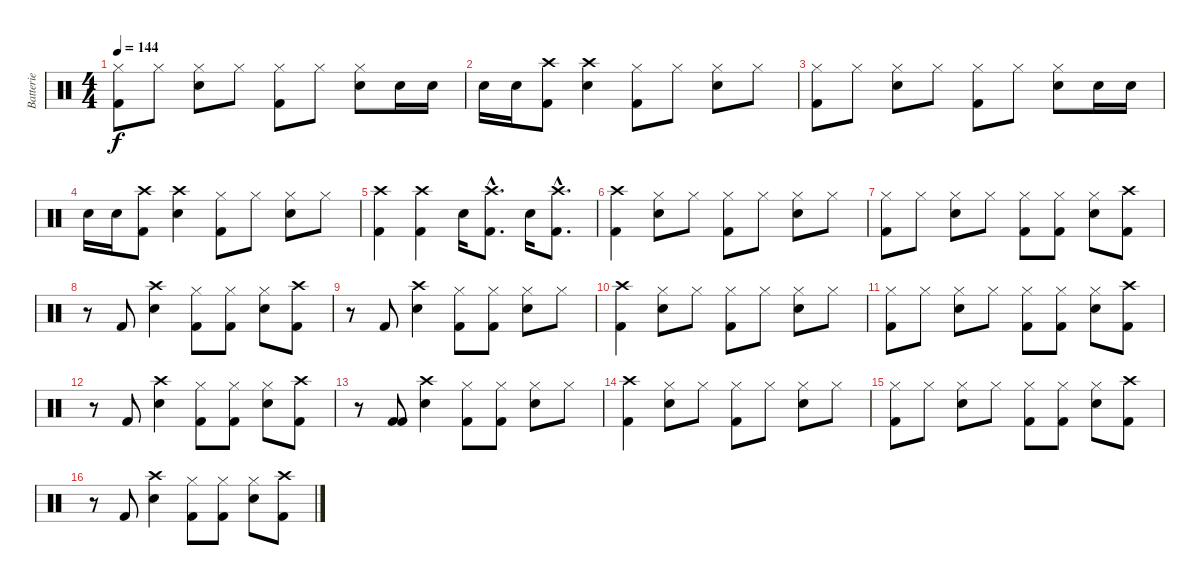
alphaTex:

\track ("Batterie" "Batterie") {instrument percussion}
\staff {score}
\articulation defaults
\ts (4 4)
\tempo 144
\clef neutral
\ks c
("Hi-Hat (closed)" "Kick (hit) 2").8{dy f} "Hi-Hat (closed)".8 ("Hi-Hat (closed)" "Snare (hit) 2").8 "Hi-Hat (closed)".8 ("Hi-Hat (closed)" "Kick (hit) 2").8 "Hi-Hat (closed)".8 ("Hi-Hat (closed)" "Snare (hit) 2").8 "Snare (hit) 2".16 "Snare (hit) 2".16 |
"Snare (hit) 2".16 "Snare (hit) 2".16 ("Crash high (hit)" "Kick (hit) 2").8 ("Crash high (hit)" "Snare (hit) 2").4 ("Hi-Hat (closed)" "Kick (hit) 2").8 "Hi-Hat (closed)".8 ("Hi-Hat (closed)" "Snare (hit) 2").8 "Hi-Hat (closed)".8 |
("Hi-Hat (closed)" "Kick (hit) 2").8 "Hi-Hat (closed)".8 ("Hi-Hat (closed)" "Snare (hit) 2").8 "Hi-Hat (closed)".8 ("Hi-Hat (closed)" "Kick (hit) 2").8 "Hi-Hat (closed)".8 ("Hi-Hat (closed)" "Snare (hit) 2").8 "Snare (hit) 2".16 "Snare (hit) 2".16 |
"Snare (hit) 2".16 "Snare (hit) 2".16 ("Crash high (hit)" "Kick (hit) 2").8 ("Crash high (hit)" "Snare (hit) 2").4 ("Hi-Hat (closed)" "Kick (hit) 2").8 "Hi-Hat (closed)".8 ("Hi-Hat (closed)" "Snare (hit) 2").8 "Hi-Hat (closed)".8 |
("Crash high (hit)" "Kick (hit) 2").4 ("Crash high (hit)" "Kick (hit) 2").4 "Snare (hit) 2".16 ("Crash high (hit)"{hac} "Kick (hit) 2"{hac}).8{d} "Snare (hit) 2".16 ("Crash high (hit)"{hac} "Kick (hit) 2"{hac}).8{d} |
("Crash high (hit)" "Kick (hit) 2").4 ("Hi-Hat (closed)" "Snare (hit) 2").8 "Hi-Hat (closed)".8 ("Hi-Hat (closed)" "Kick (hit) 2").8 "Hi-Hat (closed)".8 ("Hi-Hat (closed)" "Snare (hit) 2").8 "Hi-Hat (closed)".8 |
("Hi-Hat (closed)" "Kick (hit) 2").8 "Hi-Hat (closed)".8 ("Hi-Hat (closed)" "Snare (hit) 2").8 "Hi-Hat (closed)".8 ("Hi-Hat (closed)" "Kick (hit) 2").8 ("Hi-Hat (closed)" "Kick (hit) 2").8 ("Hi-Hat (closed)" "Snare (hit) 2").8 ("Crash high (hit)" "Kick (hit) 2").8 |
r.8 "Kick (hit) 2".8 ("Crash high (hit)" "Snare (hit) 2").4 ("Hi-Hat (closed)" "Kick (hit) 2").8 ("Hi-Hat (closed)" "Kick (hit) 2").8 ("Hi-Hat (closed)" "Snare (hit) 2").8 ("Crash high (hit)" "Kick (hit) 2").8 |
r.8 "Kick (hit) 2".8 ("Crash high (hit)" "Snare (hit) 2").4 ("Kick (hit) 2" "Hi-Hat (closed)").8 ("Kick (hit) 2" "Hi-Hat (closed)").8 ("Snare (hit) 2" "Hi-Hat (closed)").8 "Hi-Hat (closed)".8 |
("Crash high (hit)" "Kick (hit) 2").4 ("Hi-Hat (closed)" "Snare (hit) 2").8 "Hi-Hat (closed)".8 ("Hi-Hat (closed)" "Kick (hit) 2").8 "Hi-Hat (closed)".8 ("Hi-Hat (closed)" "Snare (hit) 2").8 "Hi-Hat (closed)".8 |
("Hi-Hat (closed)" "Kick (hit) 2").8 "Hi-Hat (closed)".8 ("Hi-Hat (closed)" "Snare (hit) 2").8 "Hi-Hat (closed)".8 ("Hi-Hat (closed)" "Kick (hit) 2").8 ("Hi-Hat (closed)" "Kick (hit) 2").8 ("Hi-Hat (closed)" "Snare (hit) 2").8 ("Crash high (hit)" "Kick (hit) 2").8 |
r.8 "Kick (hit) 2".8 ("Crash high (hit)" "Snare (hit) 2").4 ("Hi-Hat (closed)" "Kick (hit) 2").8 ("Hi-Hat (closed)" "Kick (hit) 2").8 ("Hi-Hat (closed)" "Snare (hit) 2").8 ("Crash high (hit)" "Kick (hit) 2").8 |
r.8 ("Kick (hit) 2" "Kick (hit) 2").8 ("Crash high (hit)" "Snare (hit) 2").4 ("Kick (hit) 2" "Hi-Hat (closed)").8 ("Kick (hit) 2" "Hi-Hat (closed)").8 ("Snare (hit) 2" "Hi-Hat (closed)").8 "Hi-Hat (closed)".8 |
("Crash high (hit)" "Kick (hit) 2").4 ("Hi-Hat (closed)" "Snare (hit) 2").8 "Hi-Hat (closed)".8 ("Hi-Hat (closed)" "Kick (hit) 2").8 "Hi-Hat (closed)".8 ("Hi-Hat (closed)" "Snare (hit) 2").8 "Hi-Hat (closed)".8 |
("Hi-Hat (closed)" "Kick (hit) 2").8 "Hi-Hat (closed)".8 ("Hi-Hat (closed)" "Snare (hit) 2").8 "Hi-Hat (closed)".8 ("Hi-Hat (closed)" "Kick (hit) 2").8 ("Hi-Hat (closed)" "Kick (hit) 2").8 ("Hi-Hat (closed)" "Snare (hit) 2").8 ("Crash high (hit)" "Kick (hit) 2").8 |
r.8 "Kick (hit) 2".8 ("Crash high (hit)" "Snare (hit) 2").4 ("Hi-Hat (closed)" "Kick (hit) 2").8 ("Hi-Hat (closed)" "Kick (hit) 2").8 ("Hi-Hat (closed)" "Snare (hit) 2").8 ("Crash high (hit)" "Kick (hit) 2").8
